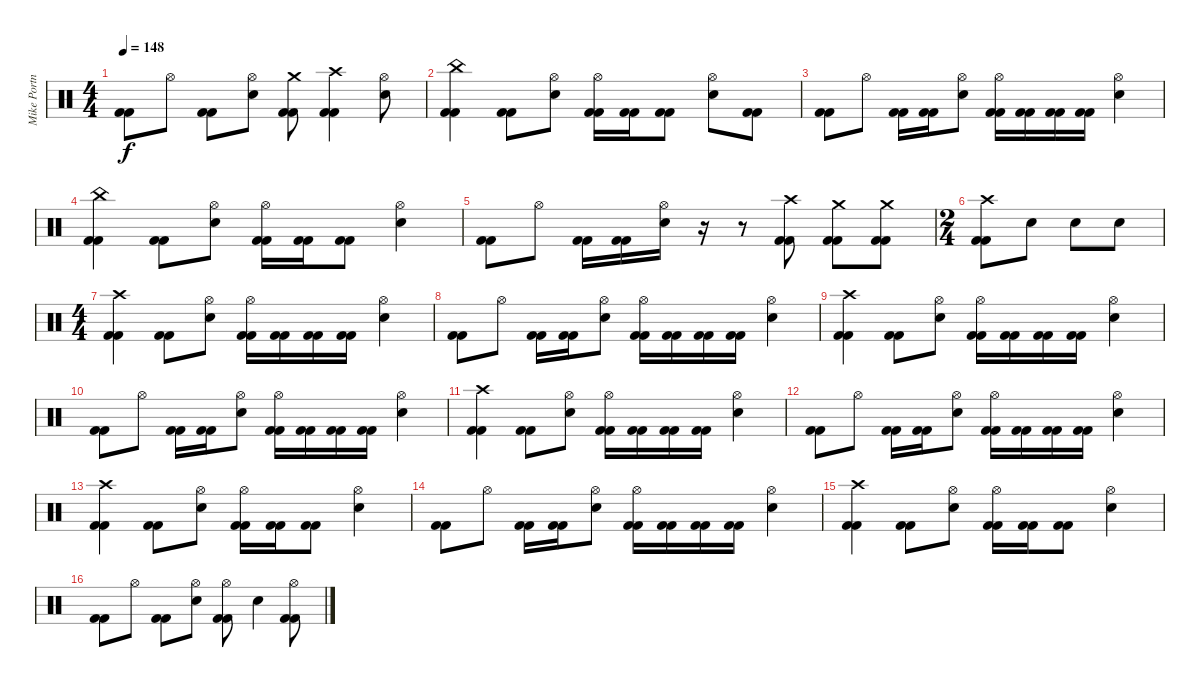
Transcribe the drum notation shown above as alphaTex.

\track ("Mike Portnoy - Drum" "Mike Portn") {instrument percussion}
\staff {score}
\articulation defaults
\ts (4 4)
\tempo 148
\clef neutral
\ks c
("Kick (hit) 2" "Kick (hit) 2").8{dy f} "Hi-Hat (open)".8 ("Kick (hit) 2" "Kick (hit) 2").8 ("Hi-Hat (open)" "Snare (hit) 2").8 ("Crash medium (hit)" "Kick (hit) 2" "Kick (hit) 2").8 ("Crash high (hit)" "Kick (hit) 2" "Kick (hit) 2").4 ("Hi-Hat (open)" "Snare (hit) 2").8 |
("China (hit)" "Kick (hit) 2" "Kick (hit) 2").4 ("Kick (hit) 2" "Kick (hit) 2").8 ("Hi-Hat (open)" "Snare (hit) 2").8 ("Hi-Hat (open)" "Kick (hit) 2" "Kick (hit) 2").16 ("Kick (hit) 2" "Kick (hit) 2").16 ("Kick (hit) 2" "Kick (hit) 2").8 ("Hi-Hat (open)" "Snare (hit) 2").8 ("Kick (hit) 2" "Kick (hit) 2").8 |
("Kick (hit) 2" "Kick (hit) 2").8 "Hi-Hat (open)".8 ("Kick (hit) 2" "Kick (hit) 2").16 ("Kick (hit) 2" "Kick (hit) 2").16 ("Hi-Hat (open)" "Snare (hit) 2").8 ("Hi-Hat (open)" "Kick (hit) 2" "Kick (hit) 2").16 ("Kick (hit) 2" "Kick (hit) 2").16 ("Kick (hit) 2" "Kick (hit) 2").16 ("Kick (hit) 2" "Kick (hit) 2").16 ("Hi-Hat (open)" "Snare (hit) 2").4 |
("China (hit)" "Kick (hit) 2" "Kick (hit) 2").4 ("Kick (hit) 2" "Kick (hit) 2").8 ("Hi-Hat (open)" "Snare (hit) 2").8 ("Hi-Hat (open)" "Kick (hit) 2" "Kick (hit) 2").16 ("Kick (hit) 2" "Kick (hit) 2").16 ("Kick (hit) 2" "Kick (hit) 2").8 ("Hi-Hat (open)" "Snare (hit) 2").4 |
("Kick (hit) 2" "Kick (hit) 2").8 "Hi-Hat (open)".8 ("Kick (hit) 2" "Kick (hit) 2").16 ("Kick (hit) 2" "Kick (hit) 2").16 ("Hi-Hat (open)" "Snare (hit) 2").16 r.16 r.8 ("Crash high (hit)" "Kick (hit) 2" "Kick (hit) 2").8 ("Crash medium (hit)" "Kick (hit) 2" "Kick (hit) 2").8 ("Crash medium (hit)" "Kick (hit) 2" "Kick (hit) 2").8 |
\ts (2 4)
("Crash high (hit)" "Kick (hit) 2" "Kick (hit) 2").8 "Snare (hit) 2".8 "Snare (hit) 2".8 "Snare (hit) 2".8 |
\ts (4 4)
("Crash high (hit)" "Kick (hit) 2" "Kick (hit) 2").4 ("Kick (hit) 2" "Kick (hit) 2").8 ("Hi-Hat (open)" "Snare (hit) 2").8 ("Hi-Hat (open)" "Kick (hit) 2" "Kick (hit) 2").16 ("Kick (hit) 2" "Kick (hit) 2").16 ("Kick (hit) 2" "Kick (hit) 2").16 ("Kick (hit) 2" "Kick (hit) 2").16 ("Hi-Hat (open)" "Snare (hit) 2").4 |
("Kick (hit) 2" "Kick (hit) 2").8 "Hi-Hat (open)".8 ("Kick (hit) 2" "Kick (hit) 2").16 ("Kick (hit) 2" "Kick (hit) 2").16 ("Hi-Hat (open)" "Snare (hit) 2").8 ("Hi-Hat (open)" "Kick (hit) 2" "Kick (hit) 2").16 ("Kick (hit) 2" "Kick (hit) 2").16 ("Kick (hit) 2" "Kick (hit) 2").16 ("Kick (hit) 2" "Kick (hit) 2").16 ("Hi-Hat (open)" "Snare (hit) 2").4 |
("Crash high (hit)" "Kick (hit) 2" "Kick (hit) 2").4 ("Kick (hit) 2" "Kick (hit) 2").8 ("Hi-Hat (open)" "Snare (hit) 2").8 ("Hi-Hat (open)" "Kick (hit) 2" "Kick (hit) 2").16 ("Kick (hit) 2" "Kick (hit) 2").16 ("Kick (hit) 2" "Kick (hit) 2").16 ("Kick (hit) 2" "Kick (hit) 2").16 ("Hi-Hat (open)" "Snare (hit) 2").4 |
("Kick (hit) 2" "Kick (hit) 2").8 "Hi-Hat (open)".8 ("Kick (hit) 2" "Kick (hit) 2").16 ("Kick (hit) 2" "Kick (hit) 2").16 ("Hi-Hat (open)" "Snare (hit) 2").8 ("Hi-Hat (open)" "Kick (hit) 2" "Kick (hit) 2").16 ("Kick (hit) 2" "Kick (hit) 2").16 ("Kick (hit) 2" "Kick (hit) 2").16 ("Kick (hit) 2" "Kick (hit) 2").16 ("Hi-Hat (open)" "Snare (hit) 2").4 |
("Crash high (hit)" "Kick (hit) 2" "Kick (hit) 2").4 ("Kick (hit) 2" "Kick (hit) 2").8 ("Hi-Hat (open)" "Snare (hit) 2").8 ("Hi-Hat (open)" "Kick (hit) 2" "Kick (hit) 2").16 ("Kick (hit) 2" "Kick (hit) 2").16 ("Kick (hit) 2" "Kick (hit) 2").16 ("Kick (hit) 2" "Kick (hit) 2").16 ("Hi-Hat (open)" "Snare (hit) 2").4 |
("Kick (hit) 2" "Kick (hit) 2").8 "Hi-Hat (open)".8 ("Kick (hit) 2" "Kick (hit) 2").16 ("Kick (hit) 2" "Kick (hit) 2").16 ("Hi-Hat (open)" "Snare (hit) 2").8 ("Hi-Hat (open)" "Kick (hit) 2" "Kick (hit) 2").16 ("Kick (hit) 2" "Kick (hit) 2").16 ("Kick (hit) 2" "Kick (hit) 2").16 ("Kick (hit) 2" "Kick (hit) 2").16 ("Hi-Hat (open)" "Snare (hit) 2").4 |
("Crash high (hit)" "Kick (hit) 2" "Kick (hit) 2").4 ("Kick (hit) 2" "Kick (hit) 2").8 ("Hi-Hat (open)" "Snare (hit) 2").8 ("Hi-Hat (open)" "Kick (hit) 2" "Kick (hit) 2").16 ("Kick (hit) 2" "Kick (hit) 2").16 ("Kick (hit) 2" "Kick (hit) 2").8 ("Hi-Hat (open)" "Snare (hit) 2").4 |
("Kick (hit) 2" "Kick (hit) 2").8 "Hi-Hat (open)".8 ("Kick (hit) 2" "Kick (hit) 2").16 ("Kick (hit) 2" "Kick (hit) 2").16 ("Hi-Hat (open)" "Snare (hit) 2").8 ("Hi-Hat (open)" "Kick (hit) 2" "Kick (hit) 2").16 ("Kick (hit) 2" "Kick (hit) 2").16 ("Kick (hit) 2" "Kick (hit) 2").16 ("Kick (hit) 2" "Kick (hit) 2").16 ("Hi-Hat (open)" "Snare (hit) 2").4 |
("Crash high (hit)" "Kick (hit) 2" "Kick (hit) 2").4 ("Kick (hit) 2" "Kick (hit) 2").8 ("Hi-Hat (open)" "Snare (hit) 2").8 ("Hi-Hat (open)" "Kick (hit) 2" "Kick (hit) 2").16 ("Kick (hit) 2" "Kick (hit) 2").16 ("Kick (hit) 2" "Kick (hit) 2").8 ("Hi-Hat (open)" "Snare (hit) 2").4 |
("Kick (hit) 2" "Kick (hit) 2").8 "Hi-Hat (open)".8 ("Kick (hit) 2" "Kick (hit) 2").8 ("Hi-Hat (open)" "Snare (hit) 2").8 ("Hi-Hat (open)" "Kick (hit) 2" "Kick (hit) 2").8 "Snare (hit) 2".4 ("Hi-Hat (open)" "Kick (hit) 2" "Kick (hit) 2").8
